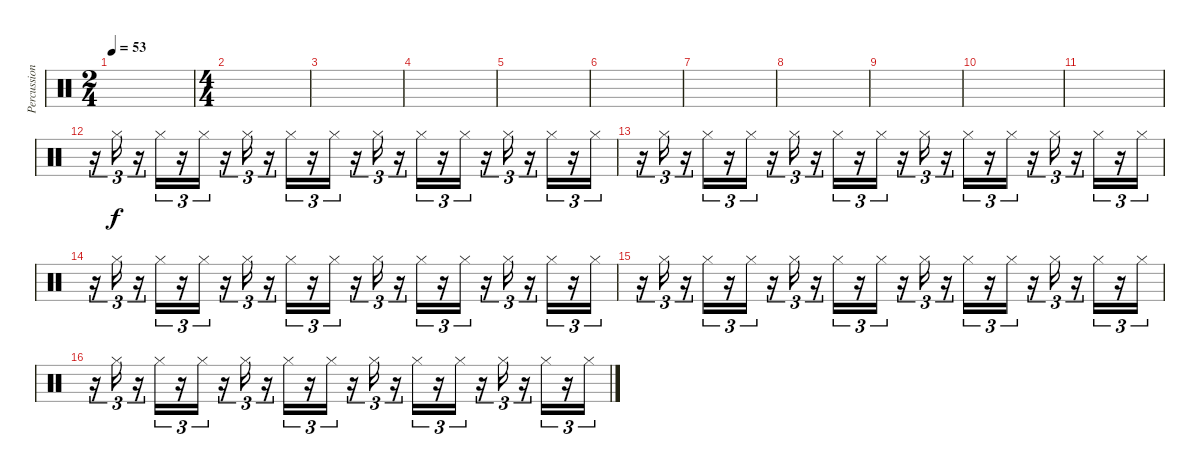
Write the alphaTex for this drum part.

\track ("Percussion" "Percussion") {instrument percussion}
\staff {score}
\articulation defaults
\ts (2 4)
\tempo 53
\clef neutral
\ks c
|
\ts (4 4)
|
|
|
|
|
|
|
|
|
|
r.16{tu (3 2) volume 6} "Hi-Hat (closed)".16{tu (3 2)} r.16{tu (3 2)} "Hi-Hat (closed)".16{tu (3 2)} r.16{tu (3 2)} "Hi-Hat (closed)".16{tu (3 2)} r.16{tu (3 2)} "Hi-Hat (closed)".16{tu (3 2)} r.16{tu (3 2)} "Hi-Hat (closed)".16{tu (3 2)} r.16{tu (3 2)} "Hi-Hat (closed)".16{tu (3 2)} r.16{tu (3 2)} "Hi-Hat (closed)".16{tu (3 2)} r.16{tu (3 2)} "Hi-Hat (closed)".16{tu (3 2)} r.16{tu (3 2)} "Hi-Hat (closed)".16{tu (3 2)} r.16{tu (3 2)} "Hi-Hat (closed)".16{tu (3 2)} r.16{tu (3 2)} "Hi-Hat (closed)".16{tu (3 2)} r.16{tu (3 2)} "Hi-Hat (closed)".16{tu (3 2)} |
r.16{tu (3 2) volume 6} "Hi-Hat (closed)".16{tu (3 2)} r.16{tu (3 2)} "Hi-Hat (closed)".16{tu (3 2)} r.16{tu (3 2)} "Hi-Hat (closed)".16{tu (3 2)} r.16{tu (3 2)} "Hi-Hat (closed)".16{tu (3 2)} r.16{tu (3 2)} "Hi-Hat (closed)".16{tu (3 2)} r.16{tu (3 2)} "Hi-Hat (closed)".16{tu (3 2)} r.16{tu (3 2)} "Hi-Hat (closed)".16{tu (3 2)} r.16{tu (3 2)} "Hi-Hat (closed)".16{tu (3 2)} r.16{tu (3 2)} "Hi-Hat (closed)".16{tu (3 2)} r.16{tu (3 2)} "Hi-Hat (closed)".16{tu (3 2)} r.16{tu (3 2)} "Hi-Hat (closed)".16{tu (3 2)} r.16{tu (3 2)} "Hi-Hat (closed)".16{tu (3 2)} |
r.16{tu (3 2) volume 6} "Hi-Hat (closed)".16{tu (3 2)} r.16{tu (3 2)} "Hi-Hat (closed)".16{tu (3 2)} r.16{tu (3 2)} "Hi-Hat (closed)".16{tu (3 2)} r.16{tu (3 2)} "Hi-Hat (closed)".16{tu (3 2)} r.16{tu (3 2)} "Hi-Hat (closed)".16{tu (3 2)} r.16{tu (3 2)} "Hi-Hat (closed)".16{tu (3 2)} r.16{tu (3 2)} "Hi-Hat (closed)".16{tu (3 2)} r.16{tu (3 2)} "Hi-Hat (closed)".16{tu (3 2)} r.16{tu (3 2)} "Hi-Hat (closed)".16{tu (3 2)} r.16{tu (3 2)} "Hi-Hat (closed)".16{tu (3 2)} r.16{tu (3 2)} "Hi-Hat (closed)".16{tu (3 2)} r.16{tu (3 2)} "Hi-Hat (closed)".16{tu (3 2)} |
r.16{tu (3 2) volume 6} "Hi-Hat (closed)".16{tu (3 2)} r.16{tu (3 2)} "Hi-Hat (closed)".16{tu (3 2)} r.16{tu (3 2)} "Hi-Hat (closed)".16{tu (3 2)} r.16{tu (3 2)} "Hi-Hat (closed)".16{tu (3 2)} r.16{tu (3 2)} "Hi-Hat (closed)".16{tu (3 2)} r.16{tu (3 2)} "Hi-Hat (closed)".16{tu (3 2)} r.16{tu (3 2)} "Hi-Hat (closed)".16{tu (3 2)} r.16{tu (3 2)} "Hi-Hat (closed)".16{tu (3 2)} r.16{tu (3 2)} "Hi-Hat (closed)".16{tu (3 2)} r.16{tu (3 2)} "Hi-Hat (closed)".16{tu (3 2)} r.16{tu (3 2)} "Hi-Hat (closed)".16{tu (3 2)} r.16{tu (3 2)} "Hi-Hat (closed)".16{tu (3 2)} |
r.16{tu (3 2) volume 6} "Hi-Hat (closed)".16{tu (3 2)} r.16{tu (3 2)} "Hi-Hat (closed)".16{tu (3 2)} r.16{tu (3 2)} "Hi-Hat (closed)".16{tu (3 2)} r.16{tu (3 2)} "Hi-Hat (closed)".16{tu (3 2)} r.16{tu (3 2)} "Hi-Hat (closed)".16{tu (3 2)} r.16{tu (3 2)} "Hi-Hat (closed)".16{tu (3 2)} r.16{tu (3 2)} "Hi-Hat (closed)".16{tu (3 2)} r.16{tu (3 2)} "Hi-Hat (closed)".16{tu (3 2)} r.16{tu (3 2)} "Hi-Hat (closed)".16{tu (3 2)} r.16{tu (3 2)} "Hi-Hat (closed)".16{tu (3 2)} r.16{tu (3 2)} "Hi-Hat (closed)".16{tu (3 2)} r.16{tu (3 2)} "Hi-Hat (closed)".16{tu (3 2)}
